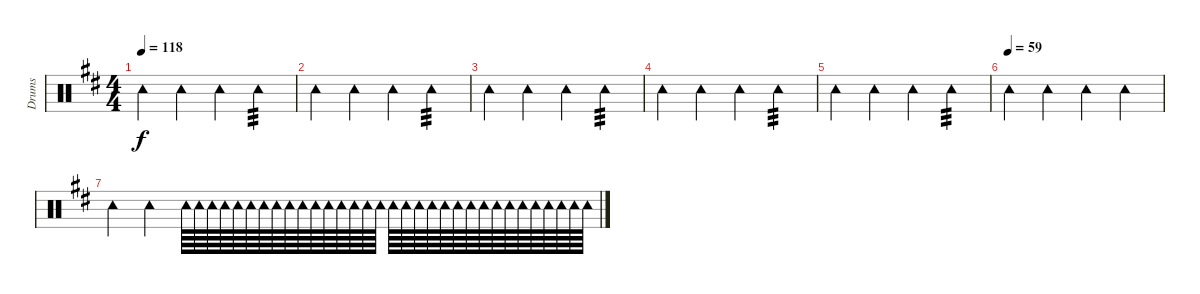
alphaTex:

\track ("Drums" "Drums") {instrument percussion}
\staff {score}
\articulation defaults
\ts (4 4)
\tempo 118
\clef neutral
\ks d "Tambourine (hit)".4{dy f} "Tambourine (hit)".4 "Tambourine (hit)".4 "Tambourine (hit)".4{tp 3}
|
"Tambourine (hit)".4 "Tambourine (hit)".4 "Tambourine (hit)".4 "Tambourine (hit)".4{tp 3} |
"Tambourine (hit)".4 "Tambourine (hit)".4 "Tambourine (hit)".4 "Tambourine (hit)".4{tp 3} |
"Tambourine (hit)".4 "Tambourine (hit)".4 "Tambourine (hit)".4 "Tambourine (hit)".4{tp 3} |
"Tambourine (hit)".4 "Tambourine (hit)".4 "Tambourine (hit)".4 "Tambourine (hit)".4{tp 3} |
\tempo (59)
"Tambourine (hit)".4 "Tambourine (hit)".4 "Tambourine (hit)".4 "Tambourine (hit)".4 |
"Tambourine (hit)".4 "Tambourine (hit)".4 "Tambourine (hit)".64 "Tambourine (hit)".64 "Tambourine (hit)".64 "Tambourine (hit)".64 "Tambourine (hit)".64 "Tambourine (hit)".64 "Tambourine (hit)".64 "Tambourine (hit)".64 "Tambourine (hit)".64 "Tambourine (hit)".64 "Tambourine (hit)".64 "Tambourine (hit)".64 "Tambourine (hit)".64 "Tambourine (hit)".64 "Tambourine (hit)".64 "Tambourine (hit)".64 "Tambourine (hit)".64 "Tambourine (hit)".64 "Tambourine (hit)".64 "Tambourine (hit)".64 "Tambourine (hit)".64 "Tambourine (hit)".64 "Tambourine (hit)".64 "Tambourine (hit)".64 "Tambourine (hit)".64 "Tambourine (hit)".64 "Tambourine (hit)".64 "Tambourine (hit)".64 "Tambourine (hit)".64 "Tambourine (hit)".64 "Tambourine (hit)".64 "Tambourine (hit)".64
